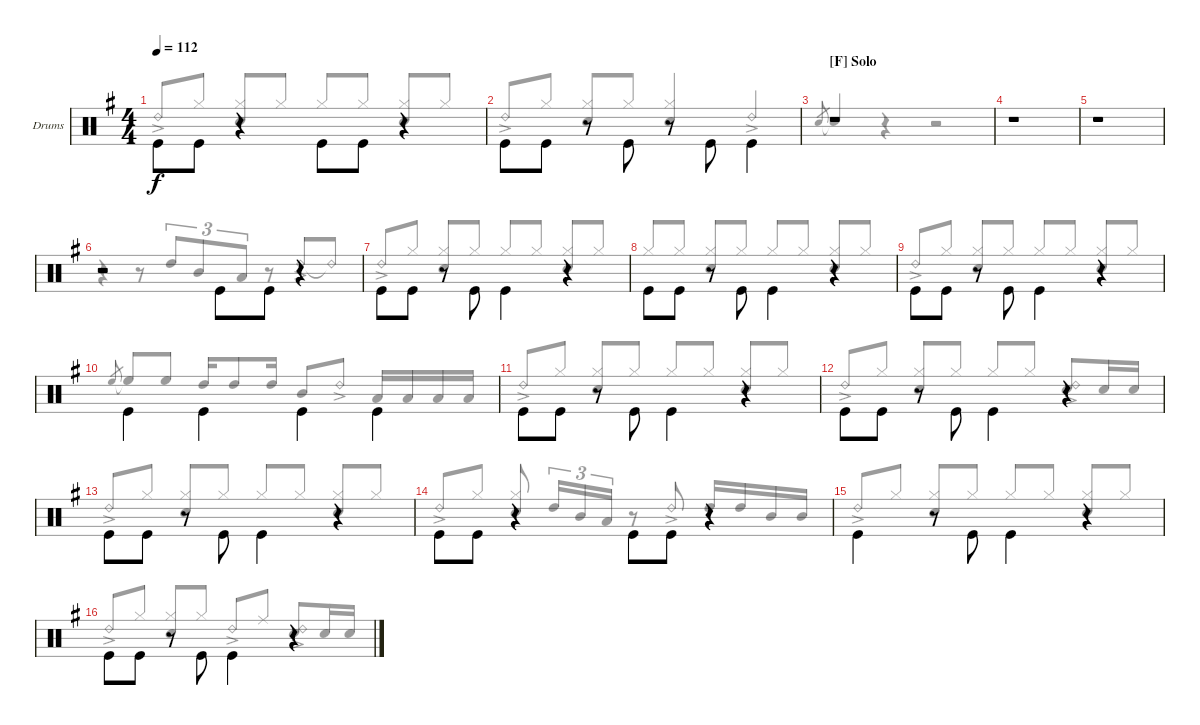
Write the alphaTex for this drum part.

\defaultSystemsLayout 4
\bracketExtendMode groupsimilarinstruments
\firstSystemTrackNameOrientation horizontal
\otherSystemsTrackNameOrientation horizontal
\track ("Drumkit" "Drums") {instrument percussion}
\staff {score}
\articulation defaults
\voice
\ts (4 4)
\tempo 112
\clef neutral
\scale
1.04288
\ks g "Kick (hit)".8{dy f beam invert} "Kick (hit)".8
r.4 "Kick (hit)".8{beam invert} "Kick (hit)".8 r.4 |
\scale
0.957125 "Kick (hit)".8{beam invert} "Kick (hit)".8 r.8 "Kick (hit)".8{beam invert} r.8 "Kick (hit)".8{beam invert} "Kick (hit)".4{beam invert} |
\section ("F" "Solo")
\scale
1.04288 r.1 |
\scale
0.957125 r.1 |
\scale
1.04288 r.1 |
\scale
0.957125 r.2 "Kick (hit)".8{beam invert} "Kick (hit)".8 r.4 |
\scale
1.04288 "Kick (hit)".8{beam invert} "Kick (hit)".8 r.8 "Kick (hit)".8{beam invert} "Kick (hit)".4{beam invert} r.4 |
\scale
0.957125 "Kick (hit)".8{beam invert} "Kick (hit)".8 r.8 "Kick (hit)".8{beam invert} "Kick (hit)".4{beam invert} r.4{beam invert} |
\scale
1.04288 "Kick (hit)".8{beam invert} "Kick (hit)".8 r.8 "Kick (hit)".8{beam invert} "Kick (hit)".4{beam invert} r.4 |
\scale
0.957125 "Kick (hit)".4{beam invert} "Kick (hit)".4{beam invert} "Kick (hit)".4{beam invert} "Kick (hit)".4{beam invert} |
\scale
1.04288 "Kick (hit)".8{beam invert} "Kick (hit)".8 r.8 "Kick (hit)".8{beam invert} "Kick (hit)".4{beam invert} r.4 |
\scale
0.957125 "Kick (hit)".8{beam invert} "Kick (hit)".8 r.8 "Kick (hit)".8{beam invert} "Kick (hit)".4{beam invert} r.4 |
\scale
1.04288 "Kick (hit)".8{beam invert} "Kick (hit)".8 r.8 "Kick (hit)".8{beam invert} "Kick (hit)".4{beam invert} r.4 |
\scale
0.957125 "Kick (hit)".8{beam invert} "Kick (hit)".8 r.4 "Kick (hit)".8{beam invert} "Kick (hit)".8 r.4 |
\scale
1.04288 "Kick (hit)".4{beam invert} r.8 "Kick (hit)".8{beam invert} "Kick (hit)".4{beam invert} r.4 |
\scale
0.957125 "Kick (hit)".8{beam invert} "Kick (hit)".8 r.8 "Kick (hit)".8{beam invert} "Kick (hit)".4{beam invert} r.4
\voice
\clef neutral
\ottava regular
\simile none
\scale
1.04288
\ks g "Ride (bell) 2"{ac}.8{dy f beam invert} "Hi-Hat (closed)".8
("Hi-Hat (closed)" "Snare (hit) 2").8{beam invert} "Hi-Hat (closed)".8 "Hi-Hat (closed)".8{beam invert} "Hi-Hat (closed)".8 ("Hi-Hat (closed)" "Snare (hit) 2").8{beam invert} "Hi-Hat (closed)".8 |
\scale
0.957125 "Ride (bell) 2"{ac}.8{beam invert} "Hi-Hat (closed)".8 ("Hi-Hat (closed)" "Snare (hit) 2").8{beam invert} "Hi-Hat (closed)".8 ("Hi-Hat (closed)" "Snare (hit) 2").4{beam invert} "Ride (bell) 2"{ac}.4{beam invert} |
\scale
1.04288 "Snare (hit) 2".8{gr beam invert} "Snare (hit) 2"{t}.4{beam invert} r.4 r.2 |
\scale
0.957125 |
\scale
1.04288 |
\scale
0.957125 r.4 r.8 "High Tom (hit)".8{tu (3 2) beam invert} "Mid Tom (hit)".8{tu (3 2)} "Low Tom (hit)".8{tu (3 2)} r.8 "Ride (bell) 2"{ac}.8{beam invert} "Ride (bell) 2"{t}.8 |
\scale
1.04288 "Ride (bell) 2"{ac}.8{beam invert} "Hi-Hat (closed)".8 ("Hi-Hat (closed)" "Snare (hit) 2").8{beam invert} "Hi-Hat (closed)".8 "Hi-Hat (closed)".8{beam invert} "Hi-Hat (closed)".8 ("Hi-Hat (closed)" "Snare (hit) 2").8{beam invert} "Hi-Hat (closed)".8 |
\scale
0.957125 "Hi-Hat (closed)".8{beam invert} "Hi-Hat (closed)".8 ("Hi-Hat (closed)" "Snare (hit) 2").8{beam invert} "Hi-Hat (closed)".8 "Hi-Hat (closed)".8{beam invert} "Hi-Hat (closed)".8 ("Hi-Hat (closed)" "Snare (hit) 2").8{beam invert} "Hi-Hat (closed)".8 |
\scale
1.04288 "Ride (bell) 2"{ac}.8{beam invert} "Hi-Hat (closed)".8 ("Hi-Hat (closed)" "Snare (hit) 2").8{beam invert} "Hi-Hat (closed)".8 "Hi-Hat (closed)".8{beam invert} "Hi-Hat (closed)".8 ("Hi-Hat (closed)" "Snare (hit) 2").8{beam invert} "Hi-Hat (closed)".8 |
\scale
0.957125 "High Floor Tom (hit)".8{gr beam invert} "High Floor Tom (hit)"{t}.8{beam invert} "High Floor Tom (hit)".8 "High Tom (hit)".16{beam invert} "High Tom (hit)".8 "High Tom (hit)".16 "Mid Tom (hit)".8{beam invert} "Ride (bell) 2"{ac}.8 "Low Tom (hit)".16{beam invert} "Low Tom (hit)".16 "Low Tom (hit)".16 "Low Tom (hit)".16 |
\scale
1.04288 "Ride (bell) 2"{ac}.8{beam invert} "Hi-Hat (closed)".8 ("Hi-Hat (closed)" "Snare (hit) 2").8{beam invert} "Hi-Hat (closed)".8 "Hi-Hat (closed)".8{beam invert} "Hi-Hat (closed)".8 ("Hi-Hat (closed)" "Snare (hit) 2").8{beam invert} "Hi-Hat (closed)".8 |
\scale
0.957125 "Ride (bell) 2"{ac}.8{beam invert} "Hi-Hat (closed)".8 ("Hi-Hat (closed)" "Snare (hit) 2").8{beam invert} "Hi-Hat (closed)".8 "Hi-Hat (closed)".8{beam invert} "Hi-Hat (closed)".8 ("Snare (hit) 2" "Ride (bell) 2"{ac}).8{beam invert} "Snare (hit) 2".16 "Snare (hit) 2".16 |
\scale
1.04288 "Ride (bell) 2"{ac}.8{beam invert} "Hi-Hat (closed)".8 ("Hi-Hat (closed)" "Snare (hit) 2").8{beam invert} "Hi-Hat (closed)".8 "Hi-Hat (closed)".8{beam invert} "Hi-Hat (closed)".8 ("Hi-Hat (closed)" "Snare (hit) 2").8{beam invert} "Hi-Hat (closed)".8 |
\scale
0.957125 "Ride (bell) 2"{ac}.8{beam invert} "Hi-Hat (closed)".8 ("Hi-Hat (closed)" "Snare (hit) 2").8{beam invert} "High Tom (hit)".16{tu (3 2) beam invert} "Mid Tom (hit)".16{tu (3 2)} "Low Tom (hit)".16{tu (3 2)} r.8 "Ride (bell) 2"{ac}.8{beam invert} "High Tom (hit)".16{beam invert} "High Tom (hit)".16 "Mid Tom (hit)".16 "Mid Tom (hit)".16 |
\scale
1.04288 "Ride (bell) 2"{ac}.8{beam invert} "Hi-Hat (closed)".8 ("Hi-Hat (closed)" "Snare (hit) 2").8{beam invert} "Hi-Hat (closed)".8 "Hi-Hat (closed)".8{beam invert} "Hi-Hat (closed)".8 ("Hi-Hat (closed)" "Snare (hit) 2").8{beam invert} "Hi-Hat (closed)".8 |
\scale
0.957125 "Ride (bell) 2"{ac}.8{beam invert} "Hi-Hat (closed)".8 ("Hi-Hat (closed)" "Snare (hit) 2").8{beam invert} "Hi-Hat (closed)".8 "Ride (bell) 2"{ac}.8{beam invert} "Ride (middle)".8 ("Snare (hit) 2" "Ride (bell) 2"{ac}).8{beam invert} "Snare (hit) 2".16 "Snare (hit) 2".16
